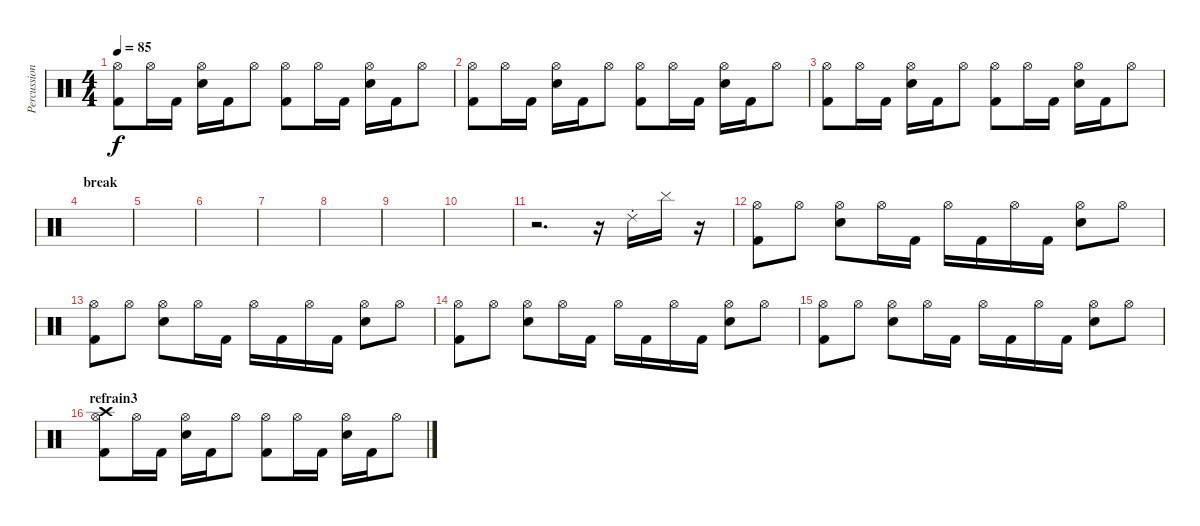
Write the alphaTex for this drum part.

\track ("Percussions" "Percussion") {instrument percussion}
\staff {score}
\articulation defaults
\ts (4 4)
\tempo 85
\clef neutral
\ks c
("Kick (hit) 2" "Hi-Hat (open)").8{dy f} "Hi-Hat (open)".16 "Kick (hit) 2".16 ("Electric Snare (hit)" "Hi-Hat (open)").16 "Kick (hit) 2".16 "Hi-Hat (open)".8 ("Hi-Hat (open)" "Kick (hit) 2").8 "Hi-Hat (open)".16 "Kick (hit) 2".16 ("Electric Snare (hit)" "Hi-Hat (open)").16 "Kick (hit) 2".16 "Hi-Hat (open)".8 |
("Kick (hit) 2" "Hi-Hat (open)").8 "Hi-Hat (open)".16 "Kick (hit) 2".16 ("Electric Snare (hit)" "Hi-Hat (open)").16 "Kick (hit) 2".16 "Hi-Hat (open)".8 ("Hi-Hat (open)" "Kick (hit) 2").8 "Hi-Hat (open)".16 "Kick (hit) 2".16 ("Electric Snare (hit)" "Hi-Hat (open)").16 "Kick (hit) 2".16 "Hi-Hat (open)".8 |
("Kick (hit) 2" "Hi-Hat (open)").8 "Hi-Hat (open)".16 "Kick (hit) 2".16 ("Electric Snare (hit)" "Hi-Hat (open)").16 "Kick (hit) 2".16 "Hi-Hat (open)".8 ("Hi-Hat (open)" "Kick (hit) 2").8 "Hi-Hat (open)".16 "Kick (hit) 2".16 ("Electric Snare (hit)" "Hi-Hat (open)").16 "Kick (hit) 2".16 "Hi-Hat (open)".8 |
\section ("" "break")
|
|
|
|
|
|
|
r.2{d} r.16 "Ride (choke) 2".16 "Cymbal (hit)".16 r.16 |
("Kick (hit) 2" "Hi-Hat (open)").8 "Hi-Hat (open)".8 ("Hi-Hat (open)" "Electric Snare (hit)").8 "Hi-Hat (open)".16 "Kick (hit) 2".16 "Hi-Hat (open)".16 "Kick (hit) 2".16 "Hi-Hat (open)".16 "Kick (hit) 2".16 ("Hi-Hat (open)" "Electric Snare (hit)").8 "Hi-Hat (open)".8 |
("Kick (hit) 2" "Hi-Hat (open)").8 "Hi-Hat (open)".8 ("Hi-Hat (open)" "Electric Snare (hit)").8 "Hi-Hat (open)".16 "Kick (hit) 2".16 "Hi-Hat (open)".16 "Kick (hit) 2".16 "Hi-Hat (open)".16 "Kick (hit) 2".16 ("Hi-Hat (open)" "Electric Snare (hit)").8 "Hi-Hat (open)".8 |
("Kick (hit) 2" "Hi-Hat (open)").8 "Hi-Hat (open)".8 ("Hi-Hat (open)" "Electric Snare (hit)").8 "Hi-Hat (open)".16 "Kick (hit) 2".16 "Hi-Hat (open)".16 "Kick (hit) 2".16 "Hi-Hat (open)".16 "Kick (hit) 2".16 ("Hi-Hat (open)" "Electric Snare (hit)").8 "Hi-Hat (open)".8 |
("Kick (hit) 2" "Hi-Hat (open)").8 "Hi-Hat (open)".8 ("Hi-Hat (open)" "Electric Snare (hit)").8 "Hi-Hat (open)".16 "Kick (hit) 2".16 "Hi-Hat (open)".16 "Kick (hit) 2".16 "Hi-Hat (open)".16 "Kick (hit) 2".16 ("Hi-Hat (open)" "Electric Snare (hit)").8 "Hi-Hat (open)".8 |
\section ("" "refrain3")
("Crash high (hit)" "Kick (hit) 2" "Hi-Hat (open)").8 "Hi-Hat (open)".16 "Kick (hit) 2".16 ("Electric Snare (hit)" "Hi-Hat (open)").16 "Kick (hit) 2".16 "Hi-Hat (open)".8 ("Hi-Hat (open)" "Kick (hit) 2").8 "Hi-Hat (open)".16 "Kick (hit) 2".16 ("Electric Snare (hit)" "Hi-Hat (open)").16 "Kick (hit) 2".16 "Hi-Hat (open)".8
